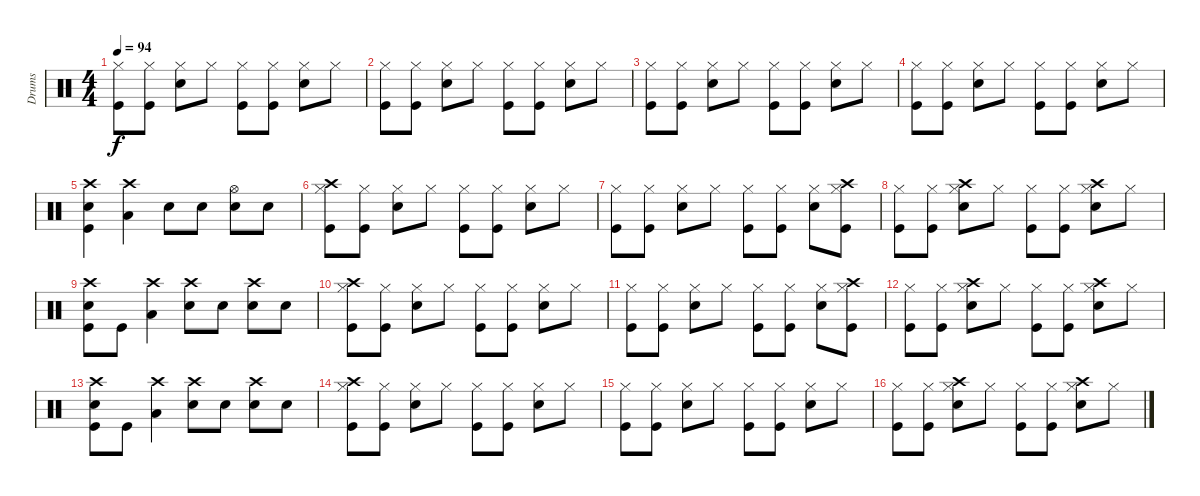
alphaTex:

\track ("Drums" "Drums") {instrument percussion}
\staff {score}
\articulation defaults
\ts (4 4)
\tempo 94
\clef neutral
\ks c
("Hi-Hat (closed)" "Kick (hit)").8{dy f} ("Hi-Hat (closed)" "Kick (hit)").8 ("Hi-Hat (closed)" "Snare (hit) 2").8 "Hi-Hat (closed)".8 ("Hi-Hat (closed)" "Kick (hit)").8 ("Hi-Hat (closed)" "Kick (hit)").8 ("Hi-Hat (closed)" "Snare (hit) 2").8 "Hi-Hat (closed)".8 |
("Hi-Hat (closed)" "Kick (hit)").8 ("Hi-Hat (closed)" "Kick (hit)").8 ("Hi-Hat (closed)" "Snare (hit) 2").8 "Hi-Hat (closed)".8 ("Hi-Hat (closed)" "Kick (hit)").8 ("Hi-Hat (closed)" "Kick (hit)").8 ("Hi-Hat (closed)" "Snare (hit) 2").8 "Hi-Hat (closed)".8 |
("Hi-Hat (closed)" "Kick (hit)").8 ("Hi-Hat (closed)" "Kick (hit)").8 ("Hi-Hat (closed)" "Snare (hit) 2").8 "Hi-Hat (closed)".8 ("Hi-Hat (closed)" "Kick (hit)").8 ("Hi-Hat (closed)" "Kick (hit)").8 ("Hi-Hat (closed)" "Snare (hit) 2").8 "Hi-Hat (closed)".8 |
("Hi-Hat (closed)" "Kick (hit)").8 ("Hi-Hat (closed)" "Kick (hit)").8 ("Hi-Hat (closed)" "Snare (hit) 2").8 "Hi-Hat (closed)".8 ("Hi-Hat (closed)" "Kick (hit)").8 ("Hi-Hat (closed)" "Kick (hit)").8 ("Hi-Hat (closed)" "Snare (hit) 2").8 "Hi-Hat (closed)".8 |
("Crash high (hit)" "Snare (hit) 2" "Kick (hit)").4 ("Crash high (hit)" "Low Tom (hit)").4 "Snare (hit) 2".8 "Snare (hit) 2".8 ("Hi-Hat (open)" "Snare (hit) 2").8 "Snare (hit) 2".8 |
("Crash high (hit)" "Hi-Hat (closed)" "Kick (hit)").8 ("Hi-Hat (closed)" "Kick (hit)").8 ("Hi-Hat (closed)" "Snare (hit) 2").8 "Hi-Hat (closed)".8 ("Hi-Hat (closed)" "Kick (hit)").8 ("Hi-Hat (closed)" "Kick (hit)").8 ("Hi-Hat (closed)" "Snare (hit) 2").8 "Hi-Hat (closed)".8 |
("Hi-Hat (closed)" "Kick (hit)").8 ("Hi-Hat (closed)" "Kick (hit)").8 ("Hi-Hat (closed)" "Snare (hit) 2").8 "Hi-Hat (closed)".8 ("Hi-Hat (closed)" "Kick (hit)").8 ("Hi-Hat (closed)" "Kick (hit)").8 ("Hi-Hat (closed)" "Snare (hit) 2").8 ("Crash high (hit)" "Hi-Hat (closed)" "Kick (hit)").8 |
("Hi-Hat (closed)" "Kick (hit)").8 ("Hi-Hat (closed)" "Kick (hit)").8 ("Crash high (hit)" "Hi-Hat (closed)" "Snare (hit) 2").8 "Hi-Hat (closed)".8 ("Hi-Hat (closed)" "Kick (hit)").8 ("Hi-Hat (closed)" "Kick (hit)").8 ("Crash high (hit)" "Hi-Hat (closed)" "Snare (hit) 2").8 "Hi-Hat (closed)".8 |
("Crash high (hit)" "Snare (hit) 2" "Kick (hit)").8 "Kick (hit)".8 ("Crash high (hit)" "Low Tom (hit)").4 ("Crash high (hit)" "Snare (hit) 2").8 "Snare (hit) 2".8 ("Crash high (hit)" "Snare (hit) 2").8 "Snare (hit) 2".8 |
("Crash high (hit)" "Hi-Hat (closed)" "Kick (hit)").8 ("Hi-Hat (closed)" "Kick (hit)").8 ("Hi-Hat (closed)" "Snare (hit) 2").8 "Hi-Hat (closed)".8 ("Hi-Hat (closed)" "Kick (hit)").8 ("Hi-Hat (closed)" "Kick (hit)").8 ("Hi-Hat (closed)" "Snare (hit) 2").8 "Hi-Hat (closed)".8 |
("Hi-Hat (closed)" "Kick (hit)").8 ("Hi-Hat (closed)" "Kick (hit)").8 ("Hi-Hat (closed)" "Snare (hit) 2").8 "Hi-Hat (closed)".8 ("Hi-Hat (closed)" "Kick (hit)").8 ("Hi-Hat (closed)" "Kick (hit)").8 ("Hi-Hat (closed)" "Snare (hit) 2").8 ("Crash high (hit)" "Hi-Hat (closed)" "Kick (hit)").8 |
("Hi-Hat (closed)" "Kick (hit)").8 ("Hi-Hat (closed)" "Kick (hit)").8 ("Crash high (hit)" "Hi-Hat (closed)" "Snare (hit) 2").8 "Hi-Hat (closed)".8 ("Hi-Hat (closed)" "Kick (hit)").8 ("Hi-Hat (closed)" "Kick (hit)").8 ("Crash high (hit)" "Hi-Hat (closed)" "Snare (hit) 2").8 "Hi-Hat (closed)".8 |
("Crash high (hit)" "Snare (hit) 2" "Kick (hit)").8 "Kick (hit)".8 ("Crash high (hit)" "Low Tom (hit)").4 ("Crash high (hit)" "Snare (hit) 2").8 "Snare (hit) 2".8 ("Crash high (hit)" "Snare (hit) 2").8 "Snare (hit) 2".8 |
("Crash high (hit)" "Hi-Hat (closed)" "Kick (hit)").8 ("Hi-Hat (closed)" "Kick (hit)").8 ("Hi-Hat (closed)" "Snare (hit) 2").8 "Hi-Hat (closed)".8 ("Hi-Hat (closed)" "Kick (hit)").8 ("Hi-Hat (closed)" "Kick (hit)").8 ("Hi-Hat (closed)" "Snare (hit) 2").8 "Hi-Hat (closed)".8 |
("Hi-Hat (closed)" "Kick (hit)").8 ("Hi-Hat (closed)" "Kick (hit)").8 ("Hi-Hat (closed)" "Snare (hit) 2").8 "Hi-Hat (closed)".8 ("Hi-Hat (closed)" "Kick (hit)").8 ("Hi-Hat (closed)" "Kick (hit)").8 ("Hi-Hat (closed)" "Snare (hit) 2").8 "Hi-Hat (closed)".8 |
("Hi-Hat (closed)" "Kick (hit)").8 ("Hi-Hat (closed)" "Kick (hit)").8 ("Crash high (hit)" "Hi-Hat (closed)" "Snare (hit) 2").8 "Hi-Hat (closed)".8 ("Hi-Hat (closed)" "Kick (hit)").8 ("Hi-Hat (closed)" "Kick (hit)").8 ("Crash high (hit)" "Hi-Hat (closed)" "Snare (hit) 2").8 "Hi-Hat (closed)".8
